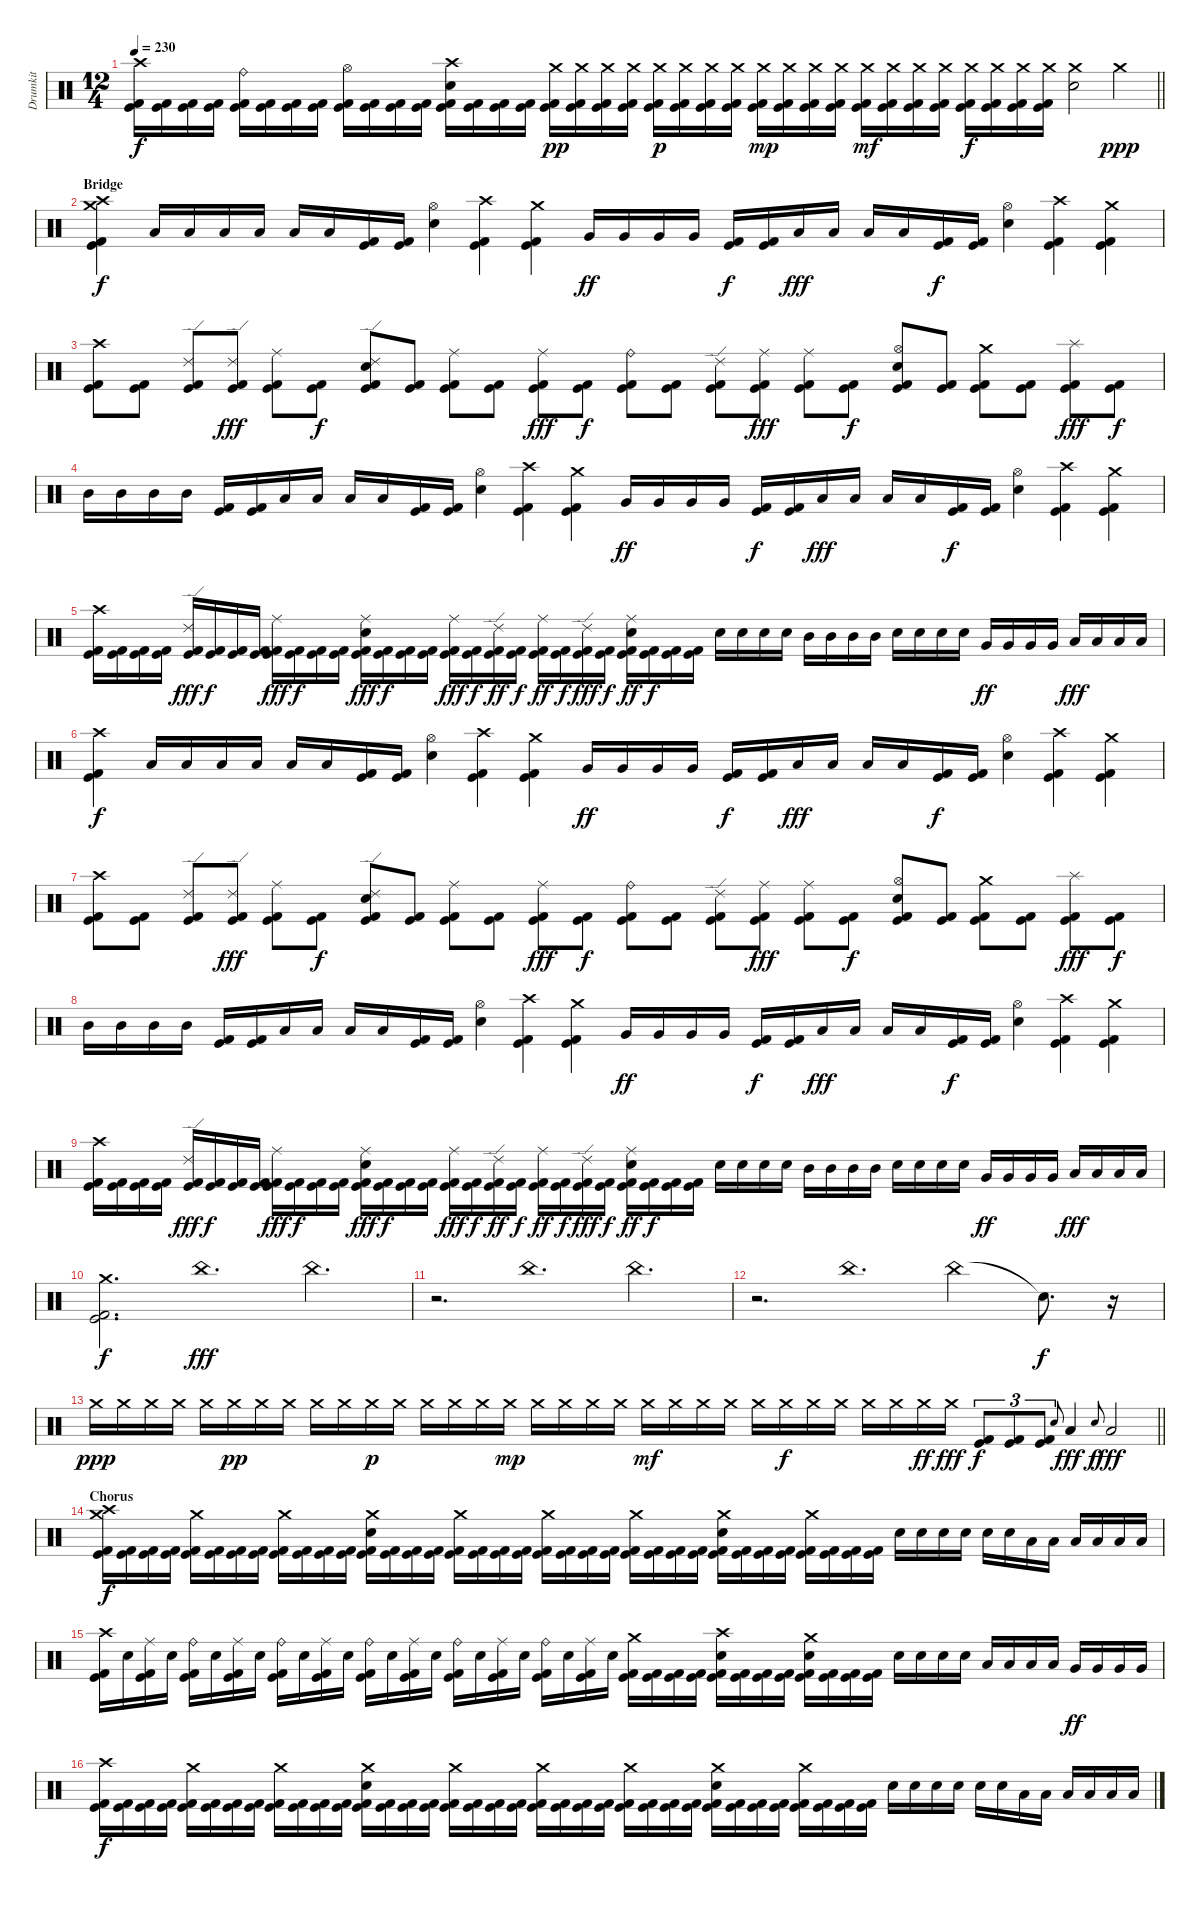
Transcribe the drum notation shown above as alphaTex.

\track ("Drumkit" "Drumkit") {instrument percussion}
\staff {score}
\articulation defaults
\ts (12 4)
\tempo 230
\clef neutral
\barLineRight lightlight
\ks c
("Crash high (hit)" "Kick (hit)" "Kick (hit) 2").16{dy f} ("Kick (hit)" "Kick (hit) 2").16 ("Kick (hit)" "Kick (hit) 2").16 ("Kick (hit)" "Kick (hit) 2").16 ("Ride (bell)" "Kick (hit)" "Kick (hit) 2").16 ("Kick (hit)" "Kick (hit) 2").16 ("Kick (hit)" "Kick (hit) 2").16 ("Kick (hit)" "Kick (hit) 2").16 ("Hi-Hat (open)" "Kick (hit)" "Kick (hit) 2").16 ("Kick (hit)" "Kick (hit) 2").16 ("Kick (hit)" "Kick (hit) 2").16 ("Kick (hit)" "Kick (hit) 2").16 ("Crash high (hit)" "Electric Snare (hit)" "Kick (hit)" "Kick (hit) 2").16 ("Kick (hit)" "Kick (hit) 2").16 ("Kick (hit)" "Kick (hit) 2").16 ("Kick (hit)" "Kick (hit) 2").16 ("Crash medium (hit)" "Kick (hit)" "Kick (hit) 2").16{dy pp} ("Crash medium (hit)" "Kick (hit)" "Kick (hit) 2").16 ("Crash medium (hit)" "Kick (hit)" "Kick (hit) 2").16 ("Crash medium (hit)" "Kick (hit)" "Kick (hit) 2").16 ("Crash medium (hit)" "Kick (hit)" "Kick (hit) 2").16{dy p} ("Crash medium (hit)" "Kick (hit)" "Kick (hit) 2").16 ("Crash medium (hit)" "Kick (hit)" "Kick (hit) 2").16 ("Crash medium (hit)" "Kick (hit)" "Kick (hit) 2").16 ("Crash medium (hit)" "Kick (hit)" "Kick (hit) 2").16{dy mp} ("Crash medium (hit)" "Kick (hit)" "Kick (hit) 2").16 ("Crash medium (hit)" "Kick (hit)" "Kick (hit) 2").16 ("Crash medium (hit)" "Kick (hit)" "Kick (hit) 2").16 ("Crash medium (hit)" "Kick (hit)" "Kick (hit) 2").16{dy mf} ("Crash medium (hit)" "Kick (hit)" "Kick (hit) 2").16 ("Crash medium (hit)" "Kick (hit)" "Kick (hit) 2").16 ("Crash medium (hit)" "Kick (hit)" "Kick (hit) 2").16 ("Crash medium (hit)" "Kick (hit)" "Kick (hit) 2").16{dy f} ("Crash medium (hit)" "Kick (hit)" "Kick (hit) 2").16 ("Crash medium (hit)" "Kick (hit)" "Kick (hit) 2").16 ("Crash medium (hit)" "Kick (hit)" "Kick (hit) 2").16 ("Crash medium (hit)" "Electric Snare (hit)").2 "Crash medium (hit)".4{dy ppp} |
\section ("" "Bridge")
("Crash high (hit)" "Crash medium (hit)" "Kick (hit)" "Kick (hit) 2").4{dy f} "Low Tom (hit)".16 "Low Tom (hit)".16 "Low Tom (hit)".16 "Low Tom (hit)".16 "Low Tom (hit)".16 "Low Tom (hit)".16 ("Kick (hit)" "Kick (hit) 2").16 ("Kick (hit)" "Kick (hit) 2").16 ("Hi-Hat (open)" "Electric Snare (hit)").4 ("Crash high (hit)" "Kick (hit)" "Kick (hit) 2").4 ("Crash medium (hit)" "Kick (hit)" "Kick (hit) 2").4 "Very Low Tom (hit)".16{dy ff} "Very Low Tom (hit)".16 "Very Low Tom (hit)".16 "Very Low Tom (hit)".16 ("Kick (hit)" "Kick (hit) 2").16{dy f} ("Kick (hit)" "Kick (hit) 2").16 "Low Floor Tom (hit)".16{dy fff} "Low Floor Tom (hit)".16 "Low Floor Tom (hit)".16 "Low Floor Tom (hit)".16 ("Kick (hit)" "Kick (hit) 2").16{dy f} ("Kick (hit)" "Kick (hit) 2").16 ("Hi-Hat (open)" "Electric Snare (hit)").4 ("Crash high (hit)" "Kick (hit)" "Kick (hit) 2").4 ("Crash medium (hit)" "Kick (hit)" "Kick (hit) 2").4 |
("Crash high (hit)" "Kick (hit)" "Kick (hit) 2").8 ("Kick (hit)" "Kick (hit) 2").8 ("Ride (edge) 2" "Kick (hit)" "Kick (hit) 2").8 ("Ride (edge) 2" "Kick (hit)" "Kick (hit) 2").8{dy fff} ("Ride (middle)" "Kick (hit)" "Kick (hit) 2").8 ("Kick (hit)" "Kick (hit) 2").8{dy f} ("Ride (edge) 2" "Electric Snare (hit)" "Kick (hit)" "Kick (hit) 2").8 ("Kick (hit)" "Kick (hit) 2").8 ("Ride (middle)" "Kick (hit)" "Kick (hit) 2").8 ("Kick (hit)" "Kick (hit) 2").8 ("Ride (middle)" "Kick (hit)" "Kick (hit) 2").8{dy fff} ("Kick (hit)" "Kick (hit) 2").8{dy f} ("Ride (bell)" "Kick (hit)" "Kick (hit) 2").8 ("Kick (hit)" "Kick (hit) 2").8 ("Ride (edge) 2" "Kick (hit)" "Kick (hit) 2").8 ("Ride (middle)" "Kick (hit)" "Kick (hit) 2").8{dy fff} ("Ride (middle)" "Kick (hit)" "Kick (hit) 2").8 ("Kick (hit)" "Kick (hit) 2").8{dy f} ("Hi-Hat (open)" "Electric Snare (hit)" "Kick (hit)" "Kick (hit) 2").8 ("Kick (hit)" "Kick (hit) 2").8 ("Crash medium (hit)" "Kick (hit)" "Kick (hit) 2").8 ("Kick (hit)" "Kick (hit) 2").8 ("Splash (hit)" "Kick (hit)" "Kick (hit) 2").8{dy fff} ("Kick (hit)" "Kick (hit) 2").8{dy f} |
"Mid Tom (hit)".16 "Mid Tom (hit)".16 "Mid Tom (hit)".16 "Mid Tom (hit)".16 ("Kick (hit)" "Kick (hit) 2").16 ("Kick (hit)" "Kick (hit) 2").16 "Low Tom (hit)".16 "Low Tom (hit)".16 "Low Tom (hit)".16 "Low Tom (hit)".16 ("Kick (hit)" "Kick (hit) 2").16 ("Kick (hit)" "Kick (hit) 2").16 ("Hi-Hat (open)" "Electric Snare (hit)").4 ("Crash high (hit)" "Kick (hit)" "Kick (hit) 2").4 ("Crash medium (hit)" "Kick (hit)" "Kick (hit) 2").4 "Very Low Tom (hit)".16{dy ff} "Very Low Tom (hit)".16 "Very Low Tom (hit)".16 "Very Low Tom (hit)".16 ("Kick (hit)" "Kick (hit) 2").16{dy f} ("Kick (hit)" "Kick (hit) 2").16 "Low Floor Tom (hit)".16{dy fff} "Low Floor Tom (hit)".16 "Low Floor Tom (hit)".16 "Low Floor Tom (hit)".16 ("Kick (hit)" "Kick (hit) 2").16{dy f} ("Kick (hit)" "Kick (hit) 2").16 ("Hi-Hat (open)" "Electric Snare (hit)").4 ("Crash high (hit)" "Kick (hit)" "Kick (hit) 2").4 ("Crash medium (hit)" "Kick (hit)" "Kick (hit) 2").4 |
("Crash high (hit)" "Kick (hit)" "Kick (hit) 2").16 ("Kick (hit)" "Kick (hit) 2").16 ("Kick (hit)" "Kick (hit) 2").16 ("Kick (hit)" "Kick (hit) 2").16 ("Ride (edge) 2" "Kick (hit)" "Kick (hit) 2").16{dy fff} ("Kick (hit)" "Kick (hit) 2").16{dy f} ("Kick (hit)" "Kick (hit) 2").16 ("Kick (hit)" "Kick (hit) 2").16 ("Ride (middle)" "Kick (hit)" "Kick (hit) 2").16{dy fff} ("Kick (hit)" "Kick (hit) 2").16{dy f} ("Kick (hit)" "Kick (hit) 2").16 ("Kick (hit)" "Kick (hit) 2").16 ("Ride (middle)" "Electric Snare (hit)" "Kick (hit)" "Kick (hit) 2").16{dy fff} ("Kick (hit)" "Kick (hit) 2").16{dy f} ("Kick (hit)" "Kick (hit) 2").16 ("Kick (hit)" "Kick (hit) 2").16 ("Ride (middle)" "Kick (hit)" "Kick (hit) 2").16{dy fff} ("Kick (hit)" "Kick (hit) 2").16{dy f} ("Ride (edge) 2" "Kick (hit)" "Kick (hit) 2").16{dy ff} ("Kick (hit)" "Kick (hit) 2").16{dy f} ("Ride (middle)" "Kick (hit)" "Kick (hit) 2").16{dy ff} ("Kick (hit)" "Kick (hit) 2").16{dy f} ("Ride (edge) 2" "Kick (hit)" "Kick (hit) 2").16{dy fff} ("Kick (hit)" "Kick (hit) 2").16{dy f} ("Ride (middle)" "Electric Snare (hit)" "Kick (hit)" "Kick (hit) 2").16{dy ff} ("Kick (hit)" "Kick (hit) 2").16{dy f} ("Kick (hit)" "Kick (hit) 2").16 ("Kick (hit)" "Kick (hit) 2").16 "Electric Snare (hit)".16 "Electric Snare (hit)".16 "Electric Snare (hit)".16 "Electric Snare (hit)".16 "Mid Tom (hit)".16 "Mid Tom (hit)".16 "Mid Tom (hit)".16 "Mid Tom (hit)".16 "Electric Snare (hit)".16 "Electric Snare (hit)".16 "Electric Snare (hit)".16 "Electric Snare (hit)".16 "Very Low Tom (hit)".16{dy ff} "Very Low Tom (hit)".16 "Very Low Tom (hit)".16 "Very Low Tom (hit)".16 "Low Floor Tom (hit)".16{dy fff} "Low Floor Tom (hit)".16 "Low Floor Tom (hit)".16 "Low Floor Tom (hit)".16 |
("Crash high (hit)" "Kick (hit)" "Kick (hit) 2").4{dy f} "Low Tom (hit)".16 "Low Tom (hit)".16 "Low Tom (hit)".16 "Low Tom (hit)".16 "Low Tom (hit)".16 "Low Tom (hit)".16 ("Kick (hit)" "Kick (hit) 2").16 ("Kick (hit)" "Kick (hit) 2").16 ("Hi-Hat (open)" "Electric Snare (hit)").4 ("Crash high (hit)" "Kick (hit)" "Kick (hit) 2").4 ("Crash medium (hit)" "Kick (hit)" "Kick (hit) 2").4 "Very Low Tom (hit)".16{dy ff} "Very Low Tom (hit)".16 "Very Low Tom (hit)".16 "Very Low Tom (hit)".16 ("Kick (hit)" "Kick (hit) 2").16{dy f} ("Kick (hit)" "Kick (hit) 2").16 "Low Floor Tom (hit)".16{dy fff} "Low Floor Tom (hit)".16 "Low Floor Tom (hit)".16 "Low Floor Tom (hit)".16 ("Kick (hit)" "Kick (hit) 2").16{dy f} ("Kick (hit)" "Kick (hit) 2").16 ("Hi-Hat (open)" "Electric Snare (hit)").4 ("Crash high (hit)" "Kick (hit)" "Kick (hit) 2").4 ("Crash medium (hit)" "Kick (hit)" "Kick (hit) 2").4 |
("Crash high (hit)" "Kick (hit)" "Kick (hit) 2").8 ("Kick (hit)" "Kick (hit) 2").8 ("Ride (edge) 2" "Kick (hit)" "Kick (hit) 2").8 ("Ride (edge) 2" "Kick (hit)" "Kick (hit) 2").8{dy fff} ("Ride (middle)" "Kick (hit)" "Kick (hit) 2").8 ("Kick (hit)" "Kick (hit) 2").8{dy f} ("Ride (edge) 2" "Electric Snare (hit)" "Kick (hit)" "Kick (hit) 2").8 ("Kick (hit)" "Kick (hit) 2").8 ("Ride (middle)" "Kick (hit)" "Kick (hit) 2").8 ("Kick (hit)" "Kick (hit) 2").8 ("Ride (middle)" "Kick (hit)" "Kick (hit) 2").8{dy fff} ("Kick (hit)" "Kick (hit) 2").8{dy f} ("Ride (bell)" "Kick (hit)" "Kick (hit) 2").8 ("Kick (hit)" "Kick (hit) 2").8 ("Ride (edge) 2" "Kick (hit)" "Kick (hit) 2").8 ("Ride (middle)" "Kick (hit)" "Kick (hit) 2").8{dy fff} ("Ride (middle)" "Kick (hit)" "Kick (hit) 2").8 ("Kick (hit)" "Kick (hit) 2").8{dy f} ("Hi-Hat (open)" "Electric Snare (hit)" "Kick (hit)" "Kick (hit) 2").8 ("Kick (hit)" "Kick (hit) 2").8 ("Crash medium (hit)" "Kick (hit)" "Kick (hit) 2").8 ("Kick (hit)" "Kick (hit) 2").8 ("Splash (hit)" "Kick (hit)" "Kick (hit) 2").8{dy fff} ("Kick (hit)" "Kick (hit) 2").8{dy f} |
"Mid Tom (hit)".16 "Mid Tom (hit)".16 "Mid Tom (hit)".16 "Mid Tom (hit)".16 ("Kick (hit)" "Kick (hit) 2").16 ("Kick (hit)" "Kick (hit) 2").16 "Low Tom (hit)".16 "Low Tom (hit)".16 "Low Tom (hit)".16 "Low Tom (hit)".16 ("Kick (hit)" "Kick (hit) 2").16 ("Kick (hit)" "Kick (hit) 2").16 ("Hi-Hat (open)" "Electric Snare (hit)").4 ("Crash high (hit)" "Kick (hit)" "Kick (hit) 2").4 ("Crash medium (hit)" "Kick (hit)" "Kick (hit) 2").4 "Very Low Tom (hit)".16{dy ff} "Very Low Tom (hit)".16 "Very Low Tom (hit)".16 "Very Low Tom (hit)".16 ("Kick (hit)" "Kick (hit) 2").16{dy f} ("Kick (hit)" "Kick (hit) 2").16 "Low Floor Tom (hit)".16{dy fff} "Low Floor Tom (hit)".16 "Low Floor Tom (hit)".16 "Low Floor Tom (hit)".16 ("Kick (hit)" "Kick (hit) 2").16{dy f} ("Kick (hit)" "Kick (hit) 2").16 ("Hi-Hat (open)" "Electric Snare (hit)").4 ("Crash high (hit)" "Kick (hit)" "Kick (hit) 2").4 ("Crash medium (hit)" "Kick (hit)" "Kick (hit) 2").4 |
("Crash high (hit)" "Kick (hit)" "Kick (hit) 2").16 ("Kick (hit)" "Kick (hit) 2").16 ("Kick (hit)" "Kick (hit) 2").16 ("Kick (hit)" "Kick (hit) 2").16 ("Ride (edge) 2" "Kick (hit)" "Kick (hit) 2").16{dy fff} ("Kick (hit)" "Kick (hit) 2").16{dy f} ("Kick (hit)" "Kick (hit) 2").16 ("Kick (hit)" "Kick (hit) 2").16 ("Ride (middle)" "Kick (hit)" "Kick (hit) 2").16{dy fff} ("Kick (hit)" "Kick (hit) 2").16{dy f} ("Kick (hit)" "Kick (hit) 2").16 ("Kick (hit)" "Kick (hit) 2").16 ("Ride (middle)" "Electric Snare (hit)" "Kick (hit)" "Kick (hit) 2").16{dy fff} ("Kick (hit)" "Kick (hit) 2").16{dy f} ("Kick (hit)" "Kick (hit) 2").16 ("Kick (hit)" "Kick (hit) 2").16 ("Ride (middle)" "Kick (hit)" "Kick (hit) 2").16{dy fff} ("Kick (hit)" "Kick (hit) 2").16{dy f} ("Ride (edge) 2" "Kick (hit)" "Kick (hit) 2").16{dy ff} ("Kick (hit)" "Kick (hit) 2").16{dy f} ("Ride (middle)" "Kick (hit)" "Kick (hit) 2").16{dy ff} ("Kick (hit)" "Kick (hit) 2").16{dy f} ("Ride (edge) 2" "Kick (hit)" "Kick (hit) 2").16{dy fff} ("Kick (hit)" "Kick (hit) 2").16{dy f} ("Ride (middle)" "Electric Snare (hit)" "Kick (hit)" "Kick (hit) 2").16{dy ff} ("Kick (hit)" "Kick (hit) 2").16{dy f} ("Kick (hit)" "Kick (hit) 2").16 ("Kick (hit)" "Kick (hit) 2").16 "Electric Snare (hit)".16 "Electric Snare (hit)".16 "Electric Snare (hit)".16 "Electric Snare (hit)".16 "Mid Tom (hit)".16 "Mid Tom (hit)".16 "Mid Tom (hit)".16 "Mid Tom (hit)".16 "Electric Snare (hit)".16 "Electric Snare (hit)".16 "Electric Snare (hit)".16 "Electric Snare (hit)".16 "Very Low Tom (hit)".16{dy ff} "Very Low Tom (hit)".16 "Very Low Tom (hit)".16 "Very Low Tom (hit)".16 "Low Floor Tom (hit)".16{dy fff} "Low Floor Tom (hit)".16 "Low Floor Tom (hit)".16 "Low Floor Tom (hit)".16 |
("Crash medium (hit)" "Kick (hit)" "Kick (hit) 2").2{d dy f} "China (hit)".1{d dy fff} "China (hit)".2{d} |
r.2{d} "China (hit)".1{d} "China (hit)".2{d} |
r.2{d} "China (hit)".1{d} "China (hit)".2 "Snare (hit)"{t}.8{d dy f} r.16{volume 0} |
\barLineRight lightlight "Crash medium (hit)".16{dy ppp volume 14} "Crash medium (hit)".16 "Crash medium (hit)".16 "Crash medium (hit)".16 "Crash medium (hit)".16 "Crash medium (hit)".16{dy pp} "Crash medium (hit)".16 "Crash medium (hit)".16 "Crash medium (hit)".16 "Crash medium (hit)".16 "Crash medium (hit)".16{dy p} "Crash medium (hit)".16 "Crash medium (hit)".16 "Crash medium (hit)".16 "Crash medium (hit)".16 "Crash medium (hit)".16{dy mp} "Crash medium (hit)".16 "Crash medium (hit)".16 "Crash medium (hit)".16 "Crash medium (hit)".16 "Crash medium (hit)".16{dy mf} "Crash medium (hit)".16 "Crash medium (hit)".16 "Crash medium (hit)".16 "Crash medium (hit)".16 "Crash medium (hit)".16{dy f} "Crash medium (hit)".16 "Crash medium (hit)".16 "Crash medium (hit)".16 "Crash medium (hit)".16 "Crash medium (hit)".16{dy ff} "Crash medium (hit)".16{dy fff}
("Kick (hit)" "Kick (hit) 2").8{tu (3 2) dy f} ("Kick (hit)" "Kick (hit) 2").8{tu (3 2)} ("Kick (hit)" "Kick (hit) 2").8{tu (3 2)} "Electric Snare (hit)".8{gr onbeat} "Low Floor Tom (hit)".4{dy fff} "Electric Snare (hit)".8{gr onbeat dy f} "Low Floor Tom (hit)".2{dy fff} |
\section ("" "Chorus ")
("Crash high (hit)" "Crash medium (hit)" "Kick (hit)" "Kick (hit) 2").16{dy f} ("Kick (hit)" "Kick (hit) 2").16 ("Kick (hit)" "Kick (hit) 2").16 ("Kick (hit)" "Kick (hit) 2").16 ("Crash medium (hit)" "Kick (hit)" "Kick (hit) 2").16 ("Kick (hit)" "Kick (hit) 2").16 ("Kick (hit)" "Kick (hit) 2").16 ("Kick (hit)" "Kick (hit) 2").16 ("Crash medium (hit)" "Kick (hit)" "Kick (hit) 2").16 ("Kick (hit)" "Kick (hit) 2").16 ("Kick (hit)" "Kick (hit) 2").16 ("Kick (hit)" "Kick (hit) 2").16 ("Crash medium (hit)" "Electric Snare (hit)" "Kick (hit)" "Kick (hit) 2").16 ("Kick (hit)" "Kick (hit) 2").16 ("Kick (hit)" "Kick (hit) 2").16 ("Kick (hit)" "Kick (hit) 2").16 ("Crash medium (hit)" "Kick (hit)" "Kick (hit) 2").16 ("Kick (hit)" "Kick (hit) 2").16 ("Kick (hit)" "Kick (hit) 2").16 ("Kick (hit)" "Kick (hit) 2").16 ("Crash medium (hit)" "Kick (hit)" "Kick (hit) 2").16 ("Kick (hit)" "Kick (hit) 2").16 ("Kick (hit)" "Kick (hit) 2").16 ("Kick (hit)" "Kick (hit) 2").16 ("Crash medium (hit)" "Kick (hit)" "Kick (hit) 2").16 ("Kick (hit)" "Kick (hit) 2").16 ("Kick (hit)" "Kick (hit) 2").16 ("Kick (hit)" "Kick (hit) 2").16 ("Crash medium (hit)" "Electric Snare (hit)" "Kick (hit)" "Kick (hit) 2").16 ("Kick (hit)" "Kick (hit) 2").16 ("Kick (hit)" "Kick (hit) 2").16 ("Kick (hit)" "Kick (hit) 2").16 ("Crash medium (hit)" "Kick (hit)" "Kick (hit) 2").16 ("Kick (hit)" "Kick (hit) 2").16 ("Kick (hit)" "Kick (hit) 2").16 ("Kick (hit)" "Kick (hit) 2").16 "Electric Snare (hit)".16 "Electric Snare (hit)".16 "Electric Snare (hit)".16 "Electric Snare (hit)".16 "Electric Snare (hit)".16 "Electric Snare (hit)".16 "Low Tom (hit)".16 "Low Tom (hit)".16 "Low Tom (hit)".16 "Low Tom (hit)".16 "Low Tom (hit)".16 "Low Tom (hit)".16 |
("Crash high (hit)" "Kick (hit)" "Kick (hit) 2").16 "Electric Snare (hit)".16 ("Ride (middle)" "Kick (hit)" "Kick (hit) 2").16 "Electric Snare (hit)".16 ("Ride (bell)" "Kick (hit)" "Kick (hit) 2").16 "Electric Snare (hit)".16 ("Ride (middle)" "Kick (hit)" "Kick (hit) 2").16 "Electric Snare (hit)".16 ("Ride (bell)" "Kick (hit)" "Kick (hit) 2").16 "Electric Snare (hit)".16 ("Ride (middle)" "Kick (hit)" "Kick (hit) 2").16 "Electric Snare (hit)".16 ("Ride (bell)" "Kick (hit)" "Kick (hit) 2").16 "Electric Snare (hit)".16 ("Ride (middle)" "Kick (hit)" "Kick (hit) 2").16 "Electric Snare (hit)".16 ("Ride (bell)" "Kick (hit)" "Kick (hit) 2").16 "Electric Snare (hit)".16 ("Ride (middle)" "Kick (hit)" "Kick (hit) 2").16 "Electric Snare (hit)".16 ("Ride (bell)" "Kick (hit)" "Kick (hit) 2").16 "Electric Snare (hit)".16 ("Ride (middle)" "Kick (hit)" "Kick (hit) 2").16 "Electric Snare (hit)".16 ("Crash medium (hit)" "Kick (hit)" "Kick (hit) 2").16 ("Kick (hit)" "Kick (hit) 2").16 ("Kick (hit)" "Kick (hit) 2").16 ("Kick (hit)" "Kick (hit) 2").16 ("Crash high (hit)" "Electric Snare (hit)" "Kick (hit)" "Kick (hit) 2").16 ("Kick (hit)" "Kick (hit) 2").16 ("Kick (hit)" "Kick (hit) 2").16 ("Kick (hit)" "Kick (hit) 2").16 ("Crash medium (hit)" "Electric Snare (hit)" "Kick (hit)" "Kick (hit) 2").16 ("Kick (hit)" "Kick (hit) 2").16 ("Kick (hit)" "Kick (hit) 2").16 ("Kick (hit)" "Kick (hit) 2").16 "Electric Snare (hit)".16 "Electric Snare (hit)".16 "Electric Snare (hit)".16 "Electric Snare (hit)".16 "Low Tom (hit)".16 "Low Tom (hit)".16 "Low Tom (hit)".16 "Low Tom (hit)".16 "Very Low Tom (hit)".16{dy ff} "Very Low Tom (hit)".16 "Very Low Tom (hit)".16 "Very Low Tom (hit)".16 |
("Crash high (hit)" "Kick (hit)" "Kick (hit) 2").16{dy f} ("Kick (hit)" "Kick (hit) 2").16 ("Kick (hit)" "Kick (hit) 2").16 ("Kick (hit)" "Kick (hit) 2").16 ("Crash medium (hit)" "Kick (hit)" "Kick (hit) 2").16 ("Kick (hit)" "Kick (hit) 2").16 ("Kick (hit)" "Kick (hit) 2").16 ("Kick (hit)" "Kick (hit) 2").16 ("Crash medium (hit)" "Kick (hit)" "Kick (hit) 2").16 ("Kick (hit)" "Kick (hit) 2").16 ("Kick (hit)" "Kick (hit) 2").16 ("Kick (hit)" "Kick (hit) 2").16 ("Crash medium (hit)" "Electric Snare (hit)" "Kick (hit)" "Kick (hit) 2").16 ("Kick (hit)" "Kick (hit) 2").16 ("Kick (hit)" "Kick (hit) 2").16 ("Kick (hit)" "Kick (hit) 2").16 ("Crash medium (hit)" "Kick (hit)" "Kick (hit) 2").16 ("Kick (hit)" "Kick (hit) 2").16 ("Kick (hit)" "Kick (hit) 2").16 ("Kick (hit)" "Kick (hit) 2").16 ("Crash medium (hit)" "Kick (hit)" "Kick (hit) 2").16 ("Kick (hit)" "Kick (hit) 2").16 ("Kick (hit)" "Kick (hit) 2").16 ("Kick (hit)" "Kick (hit) 2").16 ("Crash medium (hit)" "Kick (hit)" "Kick (hit) 2").16 ("Kick (hit)" "Kick (hit) 2").16 ("Kick (hit)" "Kick (hit) 2").16 ("Kick (hit)" "Kick (hit) 2").16 ("Crash medium (hit)" "Electric Snare (hit)" "Kick (hit)" "Kick (hit) 2").16 ("Kick (hit)" "Kick (hit) 2").16 ("Kick (hit)" "Kick (hit) 2").16 ("Kick (hit)" "Kick (hit) 2").16 ("Crash medium (hit)" "Kick (hit)" "Kick (hit) 2").16 ("Kick (hit)" "Kick (hit) 2").16 ("Kick (hit)" "Kick (hit) 2").16 ("Kick (hit)" "Kick (hit) 2").16 "Electric Snare (hit)".16 "Electric Snare (hit)".16 "Electric Snare (hit)".16 "Electric Snare (hit)".16 "Electric Snare (hit)".16 "Electric Snare (hit)".16 "Low Tom (hit)".16 "Low Tom (hit)".16 "Low Tom (hit)".16 "Low Tom (hit)".16 "Low Tom (hit)".16 "Low Tom (hit)".16
